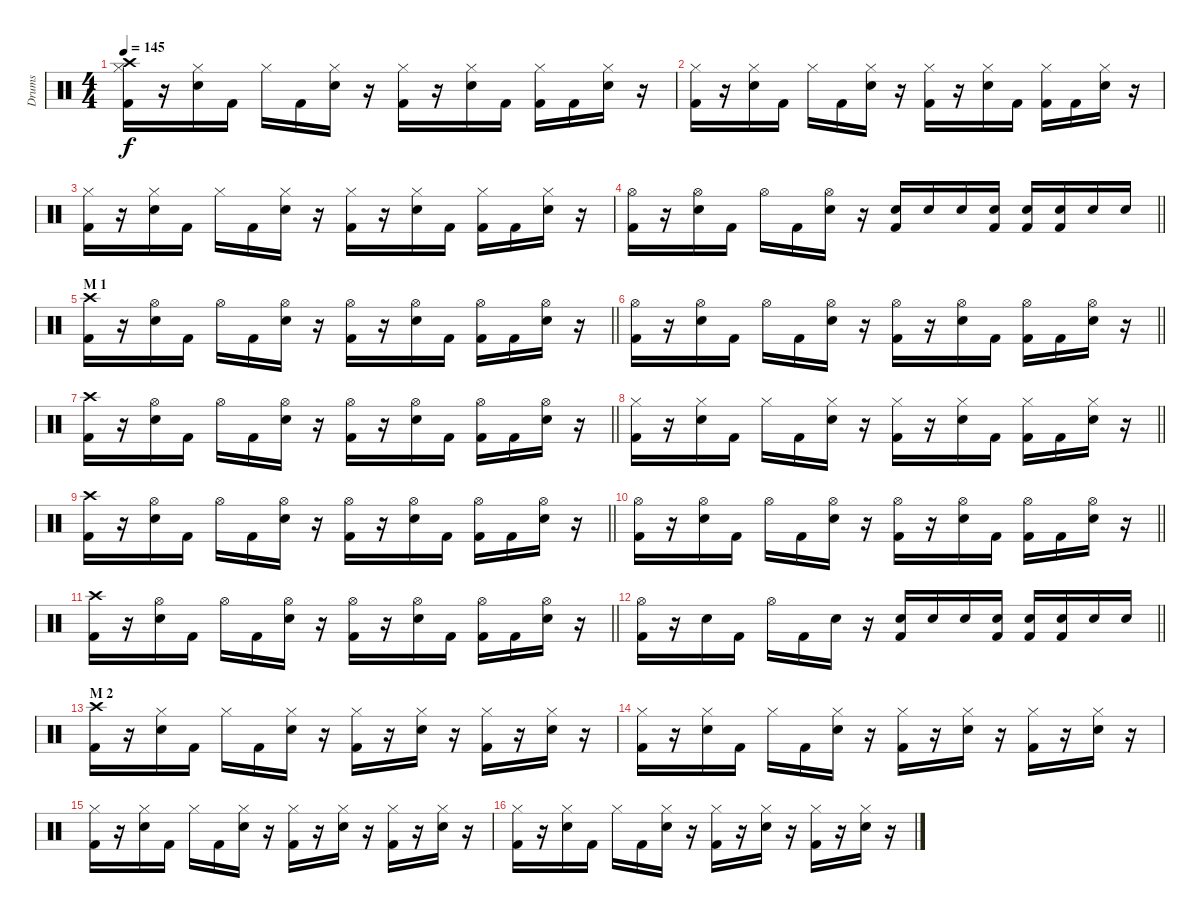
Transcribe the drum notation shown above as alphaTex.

\track ("Drums" "Drums") {instrument percussion}
\staff {score}
\articulation defaults
\ts (4 4)
\tempo 145
\clef neutral
\ks c
("Crash high (hit)" "Hi-Hat (closed)" "Kick (hit) 2").16{dy f} r.16 ("Hi-Hat (closed)" "Electric Snare (hit)").16 "Kick (hit) 2".16 "Hi-Hat (closed)".16 "Kick (hit) 2".16 ("Hi-Hat (closed)" "Electric Snare (hit)").16 r.16 ("Hi-Hat (closed)" "Kick (hit) 2").16 r.16 ("Hi-Hat (closed)" "Electric Snare (hit)").16 "Kick (hit) 2".16 ("Hi-Hat (closed)" "Kick (hit) 2").16 "Kick (hit) 2".16 ("Hi-Hat (closed)" "Electric Snare (hit)").16 r.16 |
("Hi-Hat (closed)" "Kick (hit) 2").16 r.16 ("Hi-Hat (closed)" "Electric Snare (hit)").16 "Kick (hit) 2".16 "Hi-Hat (closed)".16 "Kick (hit) 2".16 ("Hi-Hat (closed)" "Electric Snare (hit)").16 r.16 ("Hi-Hat (closed)" "Kick (hit) 2").16 r.16 ("Hi-Hat (closed)" "Electric Snare (hit)").16 "Kick (hit) 2".16 ("Hi-Hat (closed)" "Kick (hit) 2").16 "Kick (hit) 2".16 ("Hi-Hat (closed)" "Electric Snare (hit)").16 r.16 |
("Hi-Hat (closed)" "Kick (hit) 2").16 r.16 ("Hi-Hat (closed)" "Electric Snare (hit)").16 "Kick (hit) 2".16 "Hi-Hat (closed)".16 "Kick (hit) 2".16 ("Hi-Hat (closed)" "Electric Snare (hit)").16 r.16 ("Hi-Hat (closed)" "Kick (hit) 2").16 r.16 ("Hi-Hat (closed)" "Electric Snare (hit)").16 "Kick (hit) 2".16 ("Hi-Hat (closed)" "Kick (hit) 2").16 "Kick (hit) 2".16 ("Hi-Hat (closed)" "Electric Snare (hit)").16 r.16 |
\barLineRight lightlight
("Hi-Hat (open)" "Kick (hit) 2").16 r.16 ("Hi-Hat (open)" "Electric Snare (hit)").16 "Kick (hit) 2".16 "Hi-Hat (open)".16 "Kick (hit) 2".16 ("Hi-Hat (open)" "Electric Snare (hit)").16 r.16 ("Electric Snare (hit)" "Kick (hit) 2").16 "Electric Snare (hit)".16 "Electric Snare (hit)".16 ("Electric Snare (hit)" "Kick (hit) 2").16 ("Electric Snare (hit)" "Kick (hit) 2").16 ("Electric Snare (hit)" "Kick (hit) 2").16 "Electric Snare (hit)".16 "Electric Snare (hit)".16 |
\section ("" "M 1")
\barLineRight lightlight
("Crash high (hit)" "Kick (hit) 2").16 r.16 ("Hi-Hat (open)" "Electric Snare (hit)").16 "Kick (hit) 2".16 "Hi-Hat (open)".16 "Kick (hit) 2".16 ("Hi-Hat (open)" "Electric Snare (hit)").16 r.16 ("Hi-Hat (open)" "Kick (hit) 2").16 r.16 ("Hi-Hat (open)" "Electric Snare (hit)").16 "Kick (hit) 2".16 ("Hi-Hat (open)" "Kick (hit) 2").16 "Kick (hit) 2".16 ("Hi-Hat (open)" "Electric Snare (hit)").16 r.16 |
\barLineRight lightlight
("Hi-Hat (open)" "Kick (hit) 2").16 r.16 ("Hi-Hat (open)" "Electric Snare (hit)").16 "Kick (hit) 2".16 "Hi-Hat (open)".16 "Kick (hit) 2".16 ("Hi-Hat (open)" "Electric Snare (hit)").16 r.16 ("Hi-Hat (open)" "Kick (hit) 2").16 r.16 ("Hi-Hat (open)" "Electric Snare (hit)").16 "Kick (hit) 2".16 ("Hi-Hat (open)" "Kick (hit) 2").16 "Kick (hit) 2".16 ("Hi-Hat (open)" "Electric Snare (hit)").16 r.16 |
\barLineRight lightlight
("Crash high (hit)" "Kick (hit) 2").16 r.16 ("Hi-Hat (open)" "Electric Snare (hit)").16 "Kick (hit) 2".16 "Hi-Hat (open)".16 "Kick (hit) 2".16 ("Hi-Hat (open)" "Electric Snare (hit)").16 r.16 ("Hi-Hat (open)" "Kick (hit) 2").16 r.16 ("Hi-Hat (open)" "Electric Snare (hit)").16 "Kick (hit) 2".16 ("Hi-Hat (open)" "Kick (hit) 2").16 "Kick (hit) 2".16 ("Hi-Hat (open)" "Electric Snare (hit)").16 r.16 |
\barLineRight lightlight
("Hi-Hat (closed)" "Kick (hit) 2").16 r.16 ("Hi-Hat (closed)" "Electric Snare (hit)").16 "Kick (hit) 2".16 "Hi-Hat (closed)".16 "Kick (hit) 2".16 ("Hi-Hat (closed)" "Electric Snare (hit)").16 r.16 ("Hi-Hat (closed)" "Kick (hit) 2").16 r.16 ("Hi-Hat (closed)" "Electric Snare (hit)").16 "Kick (hit) 2".16 ("Hi-Hat (closed)" "Kick (hit) 2").16 "Kick (hit) 2".16 ("Hi-Hat (closed)" "Electric Snare (hit)").16 r.16 |
\barLineRight lightlight
("Crash high (hit)" "Kick (hit) 2").16 r.16 ("Hi-Hat (open)" "Electric Snare (hit)").16 "Kick (hit) 2".16 "Hi-Hat (open)".16 "Kick (hit) 2".16 ("Hi-Hat (open)" "Electric Snare (hit)").16 r.16 ("Hi-Hat (open)" "Kick (hit) 2").16 r.16 ("Hi-Hat (open)" "Electric Snare (hit)").16 "Kick (hit) 2".16 ("Hi-Hat (open)" "Kick (hit) 2").16 "Kick (hit) 2".16 ("Hi-Hat (open)" "Electric Snare (hit)").16 r.16 |
\barLineRight lightlight
("Hi-Hat (open)" "Kick (hit) 2").16 r.16 ("Hi-Hat (open)" "Electric Snare (hit)").16 "Kick (hit) 2".16 "Hi-Hat (open)".16 "Kick (hit) 2".16 ("Hi-Hat (open)" "Electric Snare (hit)").16 r.16 ("Hi-Hat (open)" "Kick (hit) 2").16 r.16 ("Hi-Hat (open)" "Electric Snare (hit)").16 "Kick (hit) 2".16 ("Hi-Hat (open)" "Kick (hit) 2").16 "Kick (hit) 2".16 ("Hi-Hat (open)" "Electric Snare (hit)").16 r.16 |
\barLineRight lightlight
("Crash high (hit)" "Kick (hit) 2").16 r.16 ("Hi-Hat (open)" "Electric Snare (hit)").16 "Kick (hit) 2".16 "Hi-Hat (open)".16 "Kick (hit) 2".16 ("Hi-Hat (open)" "Electric Snare (hit)").16 r.16 ("Hi-Hat (open)" "Kick (hit) 2").16 r.16 ("Hi-Hat (open)" "Electric Snare (hit)").16 "Kick (hit) 2".16 ("Hi-Hat (open)" "Kick (hit) 2").16 "Kick (hit) 2".16 ("Hi-Hat (open)" "Electric Snare (hit)").16 r.16 |
\barLineRight lightlight
("Hi-Hat (open)" "Kick (hit) 2").16 r.16 "Electric Snare (hit)".16 "Kick (hit) 2".16 "Hi-Hat (open)".16 "Kick (hit) 2".16 "Electric Snare (hit)".16 r.16 ("Electric Snare (hit)" "Kick (hit) 2").16 "Electric Snare (hit)".16 "Electric Snare (hit)".16 ("Electric Snare (hit)" "Kick (hit) 2").16 ("Electric Snare (hit)" "Kick (hit) 2").16 ("Electric Snare (hit)" "Kick (hit) 2").16 "Electric Snare (hit)".16 "Electric Snare (hit)".16 |
\section ("" "M 2")
("Crash high (hit)" "Kick (hit) 2").16 r.16 ("Hi-Hat (closed)" "Electric Snare (hit)").16 "Kick (hit) 2".16 "Hi-Hat (closed)".16 "Kick (hit) 2".16 ("Hi-Hat (closed)" "Electric Snare (hit)").16 r.16 ("Hi-Hat (closed)" "Kick (hit) 2").16 r.16 ("Hi-Hat (closed)" "Electric Snare (hit)").16 r.16 ("Hi-Hat (closed)" "Kick (hit) 2").16 r.16 ("Hi-Hat (closed)" "Electric Snare (hit)").16 r.16 |
("Hi-Hat (closed)" "Kick (hit) 2").16 r.16 ("Hi-Hat (closed)" "Electric Snare (hit)").16 "Kick (hit) 2".16 "Hi-Hat (closed)".16 "Kick (hit) 2".16 ("Hi-Hat (closed)" "Electric Snare (hit)").16 r.16 ("Hi-Hat (closed)" "Kick (hit) 2").16 r.16 ("Hi-Hat (closed)" "Electric Snare (hit)").16 r.16 ("Hi-Hat (closed)" "Kick (hit) 2").16 r.16 ("Hi-Hat (closed)" "Electric Snare (hit)").16 r.16 |
("Hi-Hat (closed)" "Kick (hit) 2").16 r.16 ("Hi-Hat (closed)" "Electric Snare (hit)").16 "Kick (hit) 2".16 "Hi-Hat (closed)".16 "Kick (hit) 2".16 ("Hi-Hat (closed)" "Electric Snare (hit)").16 r.16 ("Hi-Hat (closed)" "Kick (hit) 2").16 r.16 ("Hi-Hat (closed)" "Electric Snare (hit)").16 r.16 ("Hi-Hat (closed)" "Kick (hit) 2").16 r.16 ("Hi-Hat (closed)" "Electric Snare (hit)").16 r.16 |
("Hi-Hat (closed)" "Kick (hit) 2").16 r.16 ("Hi-Hat (closed)" "Electric Snare (hit)").16 "Kick (hit) 2".16 "Hi-Hat (closed)".16 "Kick (hit) 2".16 ("Hi-Hat (closed)" "Electric Snare (hit)").16 r.16 ("Hi-Hat (closed)" "Kick (hit) 2").16 r.16 ("Hi-Hat (closed)" "Electric Snare (hit)").16 r.16 ("Hi-Hat (closed)" "Kick (hit) 2").16 r.16 ("Hi-Hat (closed)" "Electric Snare (hit)").16 r.16
